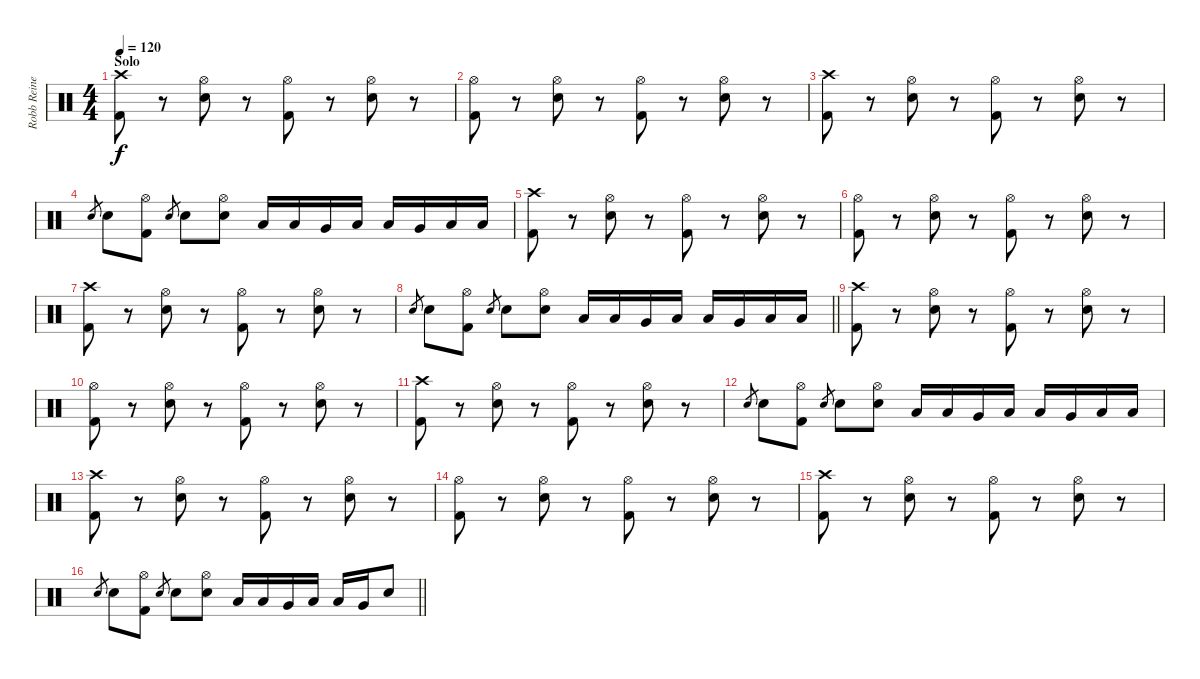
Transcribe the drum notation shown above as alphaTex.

\track ("Robb Reiner" "Robb Reine") {instrument percussion}
\staff {score}
\articulation defaults
\ts (4 4)
\section ("" "Solo")
\tempo 120
\clef neutral
\ks c
("Kick (hit) 2" "Crash high (hit)").8{dy f} r.8 ("Snare (hit) 2" "Hi-Hat (open)").8 r.8 ("Kick (hit) 2" "Hi-Hat (open)").8 r.8 ("Snare (hit) 2" "Hi-Hat (open)").8 r.8 |
("Kick (hit) 2" "Hi-Hat (open)").8 r.8 ("Snare (hit) 2" "Hi-Hat (open)").8 r.8 ("Kick (hit) 2" "Hi-Hat (open)").8 r.8 ("Snare (hit) 2" "Hi-Hat (open)").8 r.8 |
("Kick (hit) 2" "Crash high (hit)").8 r.8 ("Snare (hit) 2" "Hi-Hat (open)").8 r.8 ("Kick (hit) 2" "Hi-Hat (open)").8 r.8 ("Snare (hit) 2" "Hi-Hat (open)").8 r.8 |
"Snare (hit) 2".8{gr} "Snare (hit) 2".8 ("Kick (hit) 2" "Hi-Hat (open)").8 "Snare (hit) 2".8{gr} "Snare (hit) 2".8 ("Snare (hit) 2" "Hi-Hat (open)").8 "Low Tom (hit)".16 "Low Tom (hit)".16 "Very Low Tom (hit)".16 "Low Floor Tom (hit)".16 "Low Tom (hit)".16 "Very Low Tom (hit)".16 "Low Floor Tom (hit)".16 "Low Tom (hit)".16 |
("Kick (hit) 2" "Crash high (hit)").8 r.8 ("Snare (hit) 2" "Hi-Hat (open)").8 r.8 ("Kick (hit) 2" "Hi-Hat (open)").8 r.8 ("Snare (hit) 2" "Hi-Hat (open)").8 r.8 |
("Kick (hit) 2" "Hi-Hat (open)").8 r.8 ("Snare (hit) 2" "Hi-Hat (open)").8 r.8 ("Kick (hit) 2" "Hi-Hat (open)").8 r.8 ("Snare (hit) 2" "Hi-Hat (open)").8 r.8 |
("Kick (hit) 2" "Crash high (hit)").8 r.8 ("Snare (hit) 2" "Hi-Hat (open)").8 r.8 ("Kick (hit) 2" "Hi-Hat (open)").8 r.8 ("Snare (hit) 2" "Hi-Hat (open)").8 r.8 |
\barLineRight lightlight "Snare (hit) 2".8{gr} "Snare (hit) 2".8
("Kick (hit) 2" "Hi-Hat (open)").8 "Snare (hit) 2".8{gr} "Snare (hit) 2".8 ("Snare (hit) 2" "Hi-Hat (open)").8 "Low Tom (hit)".16 "Low Tom (hit)".16 "Very Low Tom (hit)".16 "Low Floor Tom (hit)".16 "Low Tom (hit)".16 "Very Low Tom (hit)".16 "Low Floor Tom (hit)".16 "Low Tom (hit)".16 |
("Kick (hit) 2" "Crash high (hit)").8 r.8 ("Snare (hit) 2" "Hi-Hat (open)").8 r.8 ("Kick (hit) 2" "Hi-Hat (open)").8 r.8 ("Snare (hit) 2" "Hi-Hat (open)").8 r.8 |
("Kick (hit) 2" "Hi-Hat (open)").8 r.8 ("Snare (hit) 2" "Hi-Hat (open)").8 r.8 ("Kick (hit) 2" "Hi-Hat (open)").8 r.8 ("Snare (hit) 2" "Hi-Hat (open)").8 r.8 |
("Kick (hit) 2" "Crash high (hit)").8 r.8 ("Snare (hit) 2" "Hi-Hat (open)").8 r.8 ("Kick (hit) 2" "Hi-Hat (open)").8 r.8 ("Snare (hit) 2" "Hi-Hat (open)").8 r.8 |
"Snare (hit) 2".8{gr} "Snare (hit) 2".8 ("Kick (hit) 2" "Hi-Hat (open)").8 "Snare (hit) 2".8{gr} "Snare (hit) 2".8 ("Snare (hit) 2" "Hi-Hat (open)").8 "Low Tom (hit)".16 "Low Tom (hit)".16 "Very Low Tom (hit)".16 "Low Floor Tom (hit)".16 "Low Tom (hit)".16 "Very Low Tom (hit)".16 "Low Floor Tom (hit)".16 "Low Tom (hit)".16 |
("Kick (hit) 2" "Crash high (hit)").8 r.8 ("Snare (hit) 2" "Hi-Hat (open)").8 r.8 ("Kick (hit) 2" "Hi-Hat (open)").8 r.8 ("Snare (hit) 2" "Hi-Hat (open)").8 r.8 |
("Kick (hit) 2" "Hi-Hat (open)").8 r.8 ("Snare (hit) 2" "Hi-Hat (open)").8 r.8 ("Kick (hit) 2" "Hi-Hat (open)").8 r.8 ("Snare (hit) 2" "Hi-Hat (open)").8 r.8 |
("Kick (hit) 2" "Crash high (hit)").8 r.8 ("Snare (hit) 2" "Hi-Hat (open)").8 r.8 ("Kick (hit) 2" "Hi-Hat (open)").8 r.8 ("Snare (hit) 2" "Hi-Hat (open)").8 r.8 |
\barLineRight lightlight "Snare (hit) 2".8{gr} "Snare (hit) 2".8
("Kick (hit) 2" "Hi-Hat (open)").8 "Snare (hit) 2".8{gr} "Snare (hit) 2".8 ("Snare (hit) 2" "Hi-Hat (open)").8 "Low Tom (hit)".16 "Low Tom (hit)".16 "Very Low Tom (hit)".16 "Low Floor Tom (hit)".16 "Low Tom (hit)".16 "Very Low Tom (hit)".16 "Snare (hit) 2".8
